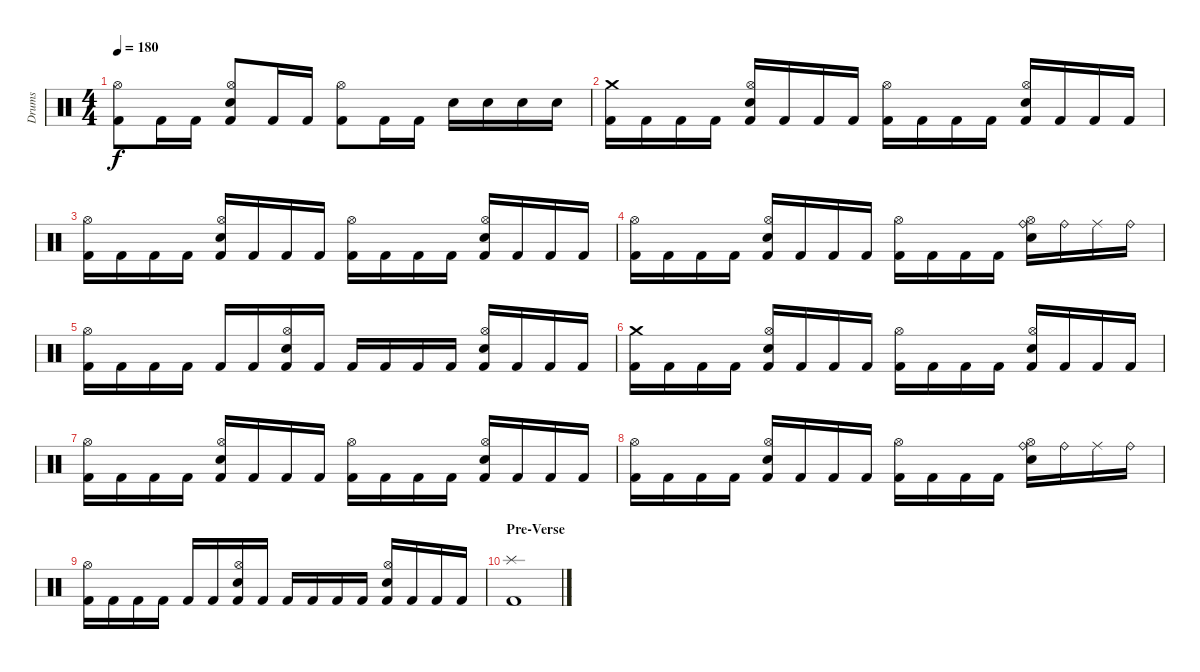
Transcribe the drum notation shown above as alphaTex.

\track ("Drums" "Drums") {instrument percussion}
\staff {score}
\articulation defaults
\ts (4 4)
\tempo 180
\clef neutral
\ks c
("Kick (hit) 2" "Hi-Hat (open)").8{dy f} "Kick (hit) 2".16 "Kick (hit) 2".16 ("Kick (hit) 2" "Electric Snare (hit)" "Hi-Hat (open)").8 "Kick (hit) 2".16 "Kick (hit) 2".16 ("Kick (hit) 2" "Hi-Hat (open)").8 "Kick (hit) 2".16 "Kick (hit) 2".16 "Electric Snare (hit)".16 "Electric Snare (hit)".16 "Electric Snare (hit)".16 "Electric Snare (hit)".16 |
("Kick (hit) 2" "Crash medium (hit)").16 "Kick (hit) 2".16 "Kick (hit) 2".16 "Kick (hit) 2".16 ("Kick (hit) 2" "Hi-Hat (open)" "Electric Snare (hit)").16 "Kick (hit) 2".16 "Kick (hit) 2".16 "Kick (hit) 2".16 ("Kick (hit) 2" "Hi-Hat (open)").16 "Kick (hit) 2".16 "Kick (hit) 2".16 "Kick (hit) 2".16 ("Kick (hit) 2" "Hi-Hat (open)" "Electric Snare (hit)").16 "Kick (hit) 2".16 "Kick (hit) 2".16 "Kick (hit) 2".16 |
("Kick (hit) 2" "Hi-Hat (open)").16 "Kick (hit) 2".16 "Kick (hit) 2".16 "Kick (hit) 2".16 ("Kick (hit) 2" "Hi-Hat (open)" "Electric Snare (hit)").16 "Kick (hit) 2".16 "Kick (hit) 2".16 "Kick (hit) 2".16 ("Kick (hit) 2" "Hi-Hat (open)").16 "Kick (hit) 2".16 "Kick (hit) 2".16 "Kick (hit) 2".16 ("Kick (hit) 2" "Hi-Hat (open)" "Electric Snare (hit)").16 "Kick (hit) 2".16 "Kick (hit) 2".16 "Kick (hit) 2".16 |
("Kick (hit) 2" "Hi-Hat (open)").16 "Kick (hit) 2".16 "Kick (hit) 2".16 "Kick (hit) 2".16 ("Kick (hit) 2" "Hi-Hat (open)" "Electric Snare (hit)").16 "Kick (hit) 2".16 "Kick (hit) 2".16 "Kick (hit) 2".16 ("Kick (hit) 2" "Hi-Hat (open)").16 "Kick (hit) 2".16 "Kick (hit) 2".16 "Kick (hit) 2".16 ("Ride (bell)" "Hi-Hat (open)" "Electric Snare (hit)").16 "Ride (bell)".16 "Ride (middle)".16 "Ride (bell)".16 |
("Kick (hit) 2" "Hi-Hat (open)").16 "Kick (hit) 2".16 "Kick (hit) 2".16 "Kick (hit) 2".16 "Kick (hit) 2".16 "Kick (hit) 2".16 ("Kick (hit) 2" "Hi-Hat (open)" "Electric Snare (hit)").16 "Kick (hit) 2".16 "Kick (hit) 2".16 "Kick (hit) 2".16 "Kick (hit) 2".16 "Kick (hit) 2".16 ("Kick (hit) 2" "Hi-Hat (open)" "Electric Snare (hit)").16 "Kick (hit) 2".16 "Kick (hit) 2".16 "Kick (hit) 2".16 |
("Kick (hit) 2" "Crash medium (hit)").16 "Kick (hit) 2".16 "Kick (hit) 2".16 "Kick (hit) 2".16 ("Kick (hit) 2" "Hi-Hat (open)" "Electric Snare (hit)").16 "Kick (hit) 2".16 "Kick (hit) 2".16 "Kick (hit) 2".16 ("Kick (hit) 2" "Hi-Hat (open)").16 "Kick (hit) 2".16 "Kick (hit) 2".16 "Kick (hit) 2".16 ("Kick (hit) 2" "Hi-Hat (open)" "Electric Snare (hit)").16 "Kick (hit) 2".16 "Kick (hit) 2".16 "Kick (hit) 2".16 |
("Kick (hit) 2" "Hi-Hat (open)").16 "Kick (hit) 2".16 "Kick (hit) 2".16 "Kick (hit) 2".16 ("Kick (hit) 2" "Hi-Hat (open)" "Electric Snare (hit)").16 "Kick (hit) 2".16 "Kick (hit) 2".16 "Kick (hit) 2".16 ("Kick (hit) 2" "Hi-Hat (open)").16 "Kick (hit) 2".16 "Kick (hit) 2".16 "Kick (hit) 2".16 ("Kick (hit) 2" "Hi-Hat (open)" "Electric Snare (hit)").16 "Kick (hit) 2".16 "Kick (hit) 2".16 "Kick (hit) 2".16 |
("Kick (hit) 2" "Hi-Hat (open)").16 "Kick (hit) 2".16 "Kick (hit) 2".16 "Kick (hit) 2".16 ("Kick (hit) 2" "Hi-Hat (open)" "Electric Snare (hit)").16 "Kick (hit) 2".16 "Kick (hit) 2".16 "Kick (hit) 2".16 ("Kick (hit) 2" "Hi-Hat (open)").16 "Kick (hit) 2".16 "Kick (hit) 2".16 "Kick (hit) 2".16 ("Ride (bell)" "Hi-Hat (open)" "Electric Snare (hit)").16 "Ride (bell)".16 "Ride (middle)".16 "Ride (bell)".16 |
("Kick (hit) 2" "Hi-Hat (open)").16 "Kick (hit) 2".16 "Kick (hit) 2".16 "Kick (hit) 2".16 "Kick (hit) 2".16 "Kick (hit) 2".16 ("Kick (hit) 2" "Hi-Hat (open)" "Electric Snare (hit)").16 "Kick (hit) 2".16 "Kick (hit) 2".16 "Kick (hit) 2".16 "Kick (hit) 2".16 "Kick (hit) 2".16 ("Kick (hit) 2" "Hi-Hat (open)" "Electric Snare (hit)").16 "Kick (hit) 2".16 "Kick (hit) 2".16 "Kick (hit) 2".16 |
\section ("" "Pre-Verse")
("Splash (hit)" "Kick (hit) 2").1
